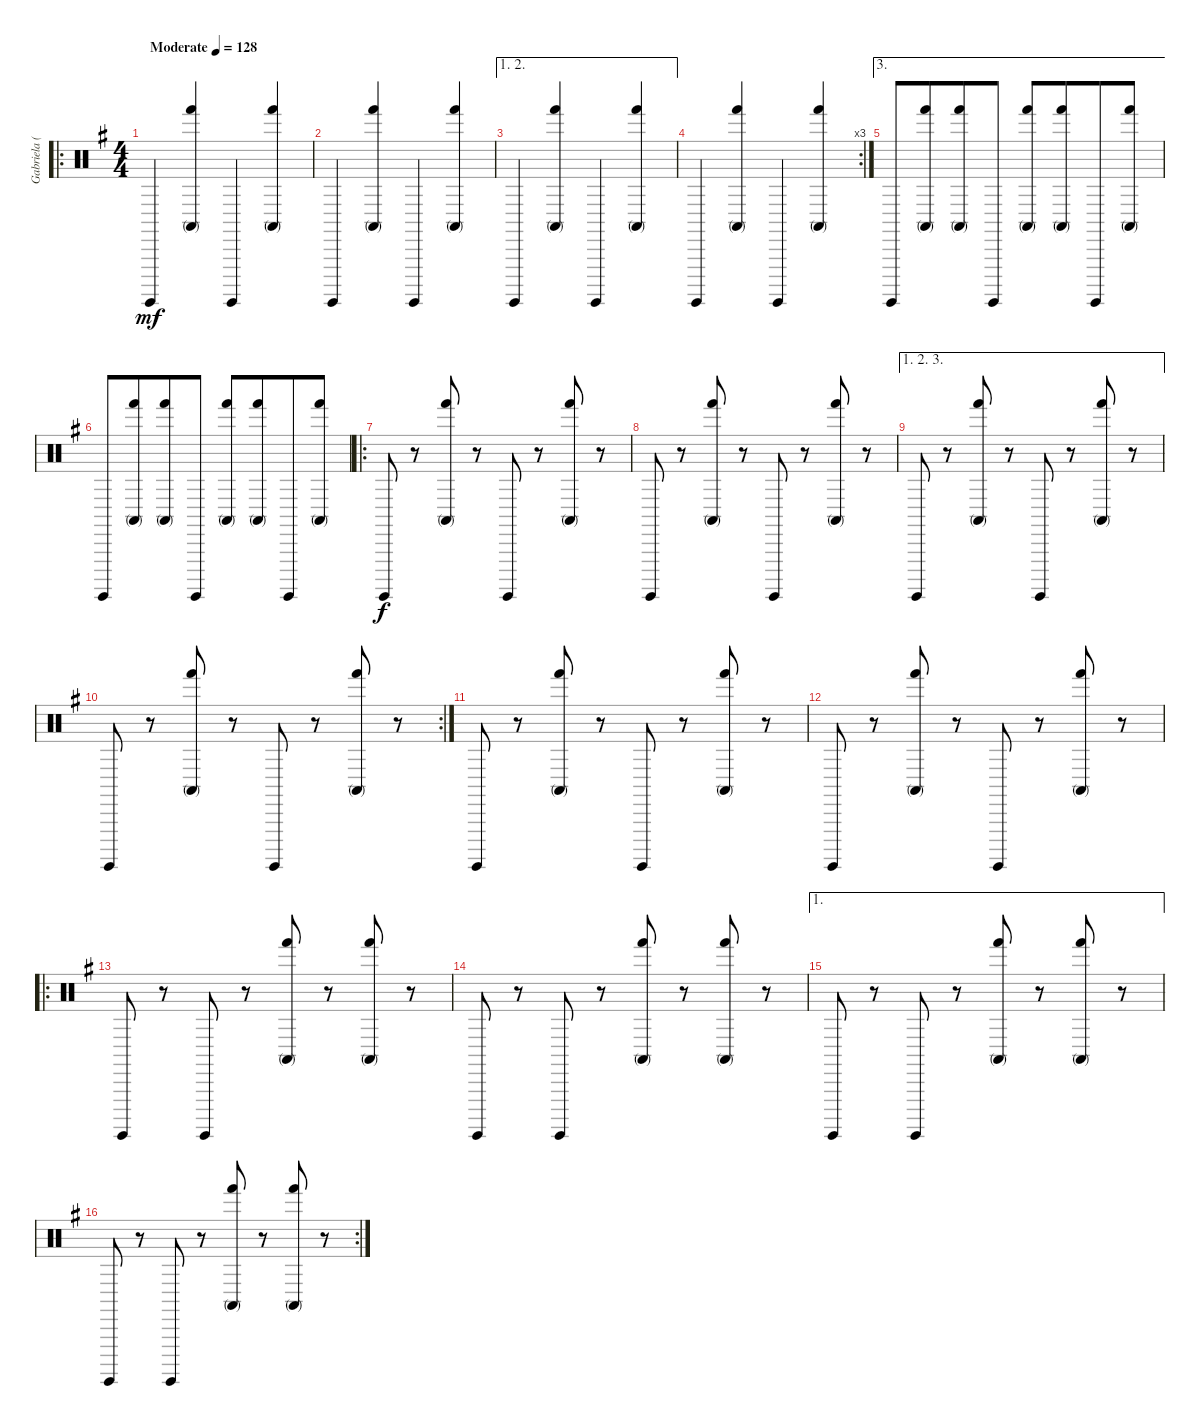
\track ("Gabriela (Percussion)" "Gabriela (") {instrument percussion}
\staff {score}
\articulation defaults
\ro
\ts (4 4)
\tempo (128 "Moderate")
\clef neutral
\ks eminor "Surdo (hit)".4{dy mf}
("Conga high (mute)" "Hand (hit)").4 "Surdo (hit)".4 ("Conga high (mute)" "Hand (hit)").4 |
"Surdo (hit)".4 ("Conga high (mute)" "Hand (hit)").4 "Surdo (hit)".4 ("Conga high (mute)" "Hand (hit)").4 |
\ae (1 2)
"Surdo (hit)".4 ("Conga high (mute)" "Hand (hit)").4 "Surdo (hit)".4 ("Conga high (mute)" "Hand (hit)").4 |
\rc 3 "Surdo (hit)".4
("Conga high (mute)" "Hand (hit)").4 "Surdo (hit)".4 ("Conga high (mute)" "Hand (hit)").4 |
\ae 3 "Surdo (hit)".8
("Conga high (mute)" "Hand (hit)").8{beam merge} ("Conga high (mute)" "Hand (hit)").8 "Surdo (hit)".8{beam split} ("Conga high (mute)" "Hand (hit)").8 ("Conga high (mute)" "Hand (hit)").8{beam merge} "Surdo (hit)".8 ("Conga high (mute)" "Hand (hit)").8 |
"Surdo (hit)".8 ("Conga high (mute)" "Hand (hit)").8{beam merge} ("Conga high (mute)" "Hand (hit)").8 "Surdo (hit)".8{beam split} ("Conga high (mute)" "Hand (hit)").8 ("Conga high (mute)" "Hand (hit)").8{beam merge} "Surdo (hit)".8 ("Conga high (mute)" "Hand (hit)").8 |
\ro "Surdo (hit)".8{dy f}
r.8 ("Conga high (mute)" "Hand (hit)").8 r.8 "Surdo (hit)".8 r.8 ("Conga high (mute)" "Hand (hit)").8 r.8 |
"Surdo (hit)".8 r.8 ("Conga high (mute)" "Hand (hit)").8 r.8 "Surdo (hit)".8 r.8 ("Conga high (mute)" "Hand (hit)").8 r.8 |
\ae (1 2 3)
"Surdo (hit)".8 r.8 ("Conga high (mute)" "Hand (hit)").8 r.8 "Surdo (hit)".8 r.8 ("Conga high (mute)" "Hand (hit)").8 r.8 |
\rc 2 "Surdo (hit)".8
r.8 ("Conga high (mute)" "Hand (hit)").8 r.8 "Surdo (hit)".8 r.8 ("Conga high (mute)" "Hand (hit)").8 r.8 |
"Surdo (hit)".8 r.8 ("Conga high (mute)" "Hand (hit)").8 r.8 "Surdo (hit)".8 r.8 ("Conga high (mute)" "Hand (hit)").8 r.8 |
"Surdo (hit)".8 r.8 ("Conga high (mute)" "Hand (hit)").8 r.8 "Surdo (hit)".8 r.8 ("Conga high (mute)" "Hand (hit)").8 r.8 |
\ro "Surdo (hit)".8
r.8 "Surdo (hit)".8 r.8 ("Conga high (mute)" "Hand (hit)").8 r.8 ("Conga high (mute)" "Hand (hit)").8 r.8 |
"Surdo (hit)".8 r.8 "Surdo (hit)".8 r.8 ("Conga high (mute)" "Hand (hit)").8 r.8 ("Conga high (mute)" "Hand (hit)").8 r.8 |
\ae 1 "Surdo (hit)".8
r.8 "Surdo (hit)".8 r.8 ("Conga high (mute)" "Hand (hit)").8 r.8 ("Conga high (mute)" "Hand (hit)").8 r.8 |
\rc 2 "Surdo (hit)".8
r.8 "Surdo (hit)".8 r.8 ("Conga high (mute)" "Hand (hit)").8 r.8 ("Conga high (mute)" "Hand (hit)").8 r.8
